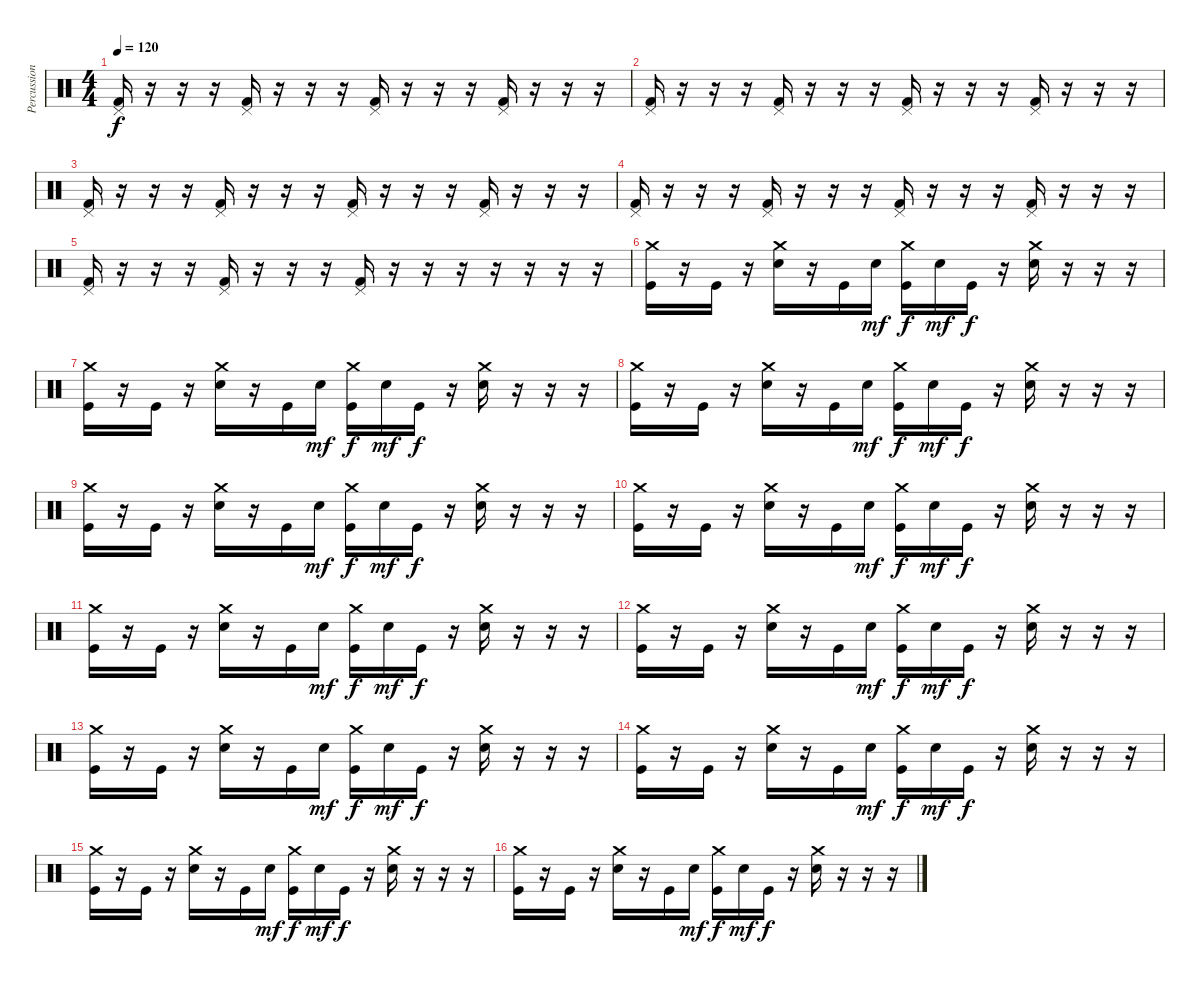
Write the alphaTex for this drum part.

\track ("Percussions" "Percussion") {instrument percussion}
\staff {score}
\articulation defaults
\ts (4 4)
\tempo 120
\clef neutral
\ks c
("Pedal Hi-Hat (hit)" "Kick (hit) 2").16{dy f} r.16 r.16 r.16 ("Pedal Hi-Hat (hit)" "Kick (hit) 2").16 r.16 r.16 r.16 ("Pedal Hi-Hat (hit)" "Kick (hit) 2").16 r.16 r.16 r.16 ("Pedal Hi-Hat (hit)" "Kick (hit) 2").16 r.16 r.16 r.16 |
("Pedal Hi-Hat (hit)" "Kick (hit) 2").16 r.16 r.16 r.16 ("Pedal Hi-Hat (hit)" "Kick (hit) 2").16 r.16 r.16 r.16 ("Pedal Hi-Hat (hit)" "Kick (hit) 2").16 r.16 r.16 r.16 ("Pedal Hi-Hat (hit)" "Kick (hit) 2").16 r.16 r.16 r.16 |
("Pedal Hi-Hat (hit)" "Kick (hit) 2").16 r.16 r.16 r.16 ("Pedal Hi-Hat (hit)" "Kick (hit) 2").16 r.16 r.16 r.16 ("Pedal Hi-Hat (hit)" "Kick (hit) 2").16 r.16 r.16 r.16 ("Pedal Hi-Hat (hit)" "Kick (hit) 2").16 r.16 r.16 r.16 |
("Pedal Hi-Hat (hit)" "Kick (hit) 2").16 r.16 r.16 r.16 ("Pedal Hi-Hat (hit)" "Kick (hit) 2").16 r.16 r.16 r.16 ("Pedal Hi-Hat (hit)" "Kick (hit) 2").16 r.16 r.16 r.16 ("Pedal Hi-Hat (hit)" "Kick (hit) 2").16 r.16 r.16 r.16 |
("Pedal Hi-Hat (hit)" "Kick (hit) 2").16 r.16 r.16 r.16 ("Pedal Hi-Hat (hit)" "Kick (hit) 2").16 r.16 r.16 r.16 ("Pedal Hi-Hat (hit)" "Kick (hit) 2").16 r.16 r.16 r.16 r.16 r.16 r.16 r.16 |
("Kick (hit)" "Crash medium (hit)").16 r.16 "Kick (hit)".16 r.16 ("Electric Snare (hit)" "Crash medium (hit)").16 r.16 "Kick (hit)".16 "Electric Snare (hit)".16{dy mf} ("Kick (hit)" "Crash medium (hit)").16{dy f} "Electric Snare (hit)".16{dy mf} "Kick (hit)".16{dy f} r.16 ("Electric Snare (hit)" "Crash medium (hit)").16 r.16 r.16 r.16 |
("Kick (hit)" "Crash medium (hit)").16 r.16 "Kick (hit)".16 r.16 ("Electric Snare (hit)" "Crash medium (hit)").16 r.16 "Kick (hit)".16 "Electric Snare (hit)".16{dy mf} ("Kick (hit)" "Crash medium (hit)").16{dy f} "Electric Snare (hit)".16{dy mf} "Kick (hit)".16{dy f} r.16 ("Electric Snare (hit)" "Crash medium (hit)").16 r.16 r.16 r.16 |
("Kick (hit)" "Crash medium (hit)").16 r.16 "Kick (hit)".16 r.16 ("Electric Snare (hit)" "Crash medium (hit)").16 r.16 "Kick (hit)".16 "Electric Snare (hit)".16{dy mf} ("Kick (hit)" "Crash medium (hit)").16{dy f} "Electric Snare (hit)".16{dy mf} "Kick (hit)".16{dy f} r.16 ("Electric Snare (hit)" "Crash medium (hit)").16 r.16 r.16 r.16 |
("Kick (hit)" "Crash medium (hit)").16 r.16 "Kick (hit)".16 r.16 ("Electric Snare (hit)" "Crash medium (hit)").16 r.16 "Kick (hit)".16 "Electric Snare (hit)".16{dy mf} ("Kick (hit)" "Crash medium (hit)").16{dy f} "Electric Snare (hit)".16{dy mf} "Kick (hit)".16{dy f} r.16 ("Electric Snare (hit)" "Crash medium (hit)").16 r.16 r.16 r.16 |
("Kick (hit)" "Crash medium (hit)").16 r.16 "Kick (hit)".16 r.16 ("Electric Snare (hit)" "Crash medium (hit)").16 r.16 "Kick (hit)".16 "Electric Snare (hit)".16{dy mf} ("Kick (hit)" "Crash medium (hit)").16{dy f} "Electric Snare (hit)".16{dy mf} "Kick (hit)".16{dy f} r.16 ("Electric Snare (hit)" "Crash medium (hit)").16 r.16 r.16 r.16 |
("Kick (hit)" "Crash medium (hit)").16 r.16 "Kick (hit)".16 r.16 ("Electric Snare (hit)" "Crash medium (hit)").16 r.16 "Kick (hit)".16 "Electric Snare (hit)".16{dy mf} ("Kick (hit)" "Crash medium (hit)").16{dy f} "Electric Snare (hit)".16{dy mf} "Kick (hit)".16{dy f} r.16 ("Electric Snare (hit)" "Crash medium (hit)").16 r.16 r.16 r.16 |
("Kick (hit)" "Crash medium (hit)").16 r.16 "Kick (hit)".16 r.16 ("Electric Snare (hit)" "Crash medium (hit)").16 r.16 "Kick (hit)".16 "Electric Snare (hit)".16{dy mf} ("Kick (hit)" "Crash medium (hit)").16{dy f} "Electric Snare (hit)".16{dy mf} "Kick (hit)".16{dy f} r.16 ("Electric Snare (hit)" "Crash medium (hit)").16 r.16 r.16 r.16 |
("Kick (hit)" "Crash medium (hit)").16 r.16 "Kick (hit)".16 r.16 ("Electric Snare (hit)" "Crash medium (hit)").16 r.16 "Kick (hit)".16 "Electric Snare (hit)".16{dy mf} ("Kick (hit)" "Crash medium (hit)").16{dy f} "Electric Snare (hit)".16{dy mf} "Kick (hit)".16{dy f} r.16 ("Electric Snare (hit)" "Crash medium (hit)").16 r.16 r.16 r.16 |
("Kick (hit)" "Crash medium (hit)").16 r.16 "Kick (hit)".16 r.16 ("Electric Snare (hit)" "Crash medium (hit)").16 r.16 "Kick (hit)".16 "Electric Snare (hit)".16{dy mf} ("Kick (hit)" "Crash medium (hit)").16{dy f} "Electric Snare (hit)".16{dy mf} "Kick (hit)".16{dy f} r.16 ("Electric Snare (hit)" "Crash medium (hit)").16 r.16 r.16 r.16 |
("Kick (hit)" "Crash medium (hit)").16 r.16 "Kick (hit)".16 r.16 ("Electric Snare (hit)" "Crash medium (hit)").16 r.16 "Kick (hit)".16 "Electric Snare (hit)".16{dy mf} ("Kick (hit)" "Crash medium (hit)").16{dy f} "Electric Snare (hit)".16{dy mf} "Kick (hit)".16{dy f} r.16 ("Electric Snare (hit)" "Crash medium (hit)").16 r.16 r.16 r.16 |
("Kick (hit)" "Crash medium (hit)").16 r.16 "Kick (hit)".16 r.16 ("Electric Snare (hit)" "Crash medium (hit)").16 r.16 "Kick (hit)".16 "Electric Snare (hit)".16{dy mf} ("Kick (hit)" "Crash medium (hit)").16{dy f} "Electric Snare (hit)".16{dy mf} "Kick (hit)".16{dy f} r.16 ("Electric Snare (hit)" "Crash medium (hit)").16 r.16 r.16 r.16
